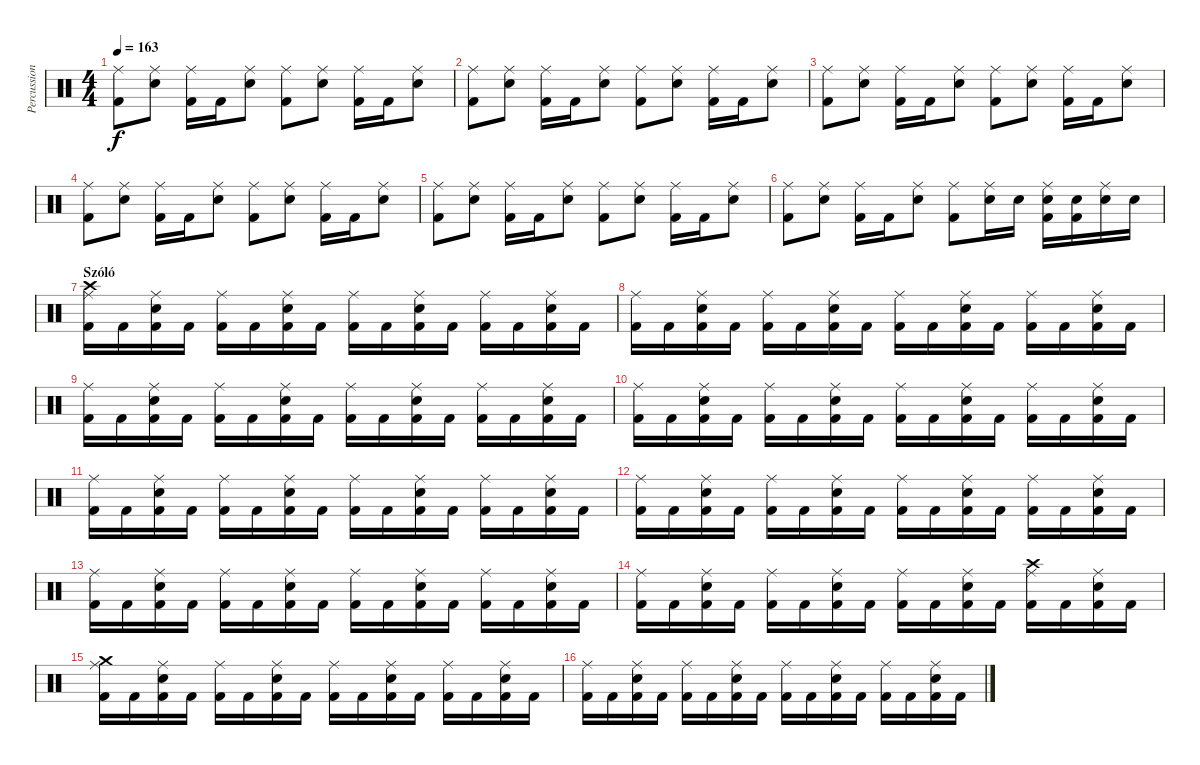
\track ("Percussion" "Percussion") {instrument percussion}
\staff {score}
\articulation defaults
\ts (4 4)
\tempo 163
\clef neutral
\ks c
("Ride (middle)" "Kick (hit) 2").8{dy f} ("Ride (middle)" "Electric Snare (hit)").8 ("Ride (middle)" "Kick (hit) 2").16 "Kick (hit) 2".16 ("Ride (middle)" "Electric Snare (hit)").8 ("Ride (middle)" "Kick (hit) 2").8 ("Ride (middle)" "Electric Snare (hit)").8 ("Ride (middle)" "Kick (hit) 2").16 "Kick (hit) 2".16 ("Ride (middle)" "Electric Snare (hit)").8 |
("Ride (middle)" "Kick (hit) 2").8 ("Ride (middle)" "Electric Snare (hit)").8 ("Ride (middle)" "Kick (hit) 2").16 "Kick (hit) 2".16 ("Ride (middle)" "Electric Snare (hit)").8 ("Ride (middle)" "Kick (hit) 2").8 ("Ride (middle)" "Electric Snare (hit)").8 ("Ride (middle)" "Kick (hit) 2").16 "Kick (hit) 2".16 ("Ride (middle)" "Electric Snare (hit)").8 |
("Ride (middle)" "Kick (hit) 2").8 ("Ride (middle)" "Electric Snare (hit)").8 ("Ride (middle)" "Kick (hit) 2").16 "Kick (hit) 2".16 ("Ride (middle)" "Electric Snare (hit)").8 ("Ride (middle)" "Kick (hit) 2").8 ("Ride (middle)" "Electric Snare (hit)").8 ("Ride (middle)" "Kick (hit) 2").16 "Kick (hit) 2".16 ("Ride (middle)" "Electric Snare (hit)").8 |
("Ride (middle)" "Kick (hit) 2").8 ("Ride (middle)" "Electric Snare (hit)").8 ("Ride (middle)" "Kick (hit) 2").16 "Kick (hit) 2".16 ("Ride (middle)" "Electric Snare (hit)").8 ("Ride (middle)" "Kick (hit) 2").8 ("Ride (middle)" "Electric Snare (hit)").8 ("Ride (middle)" "Kick (hit) 2").16 "Kick (hit) 2".16 ("Ride (middle)" "Electric Snare (hit)").8 |
("Ride (middle)" "Kick (hit) 2").8 ("Ride (middle)" "Electric Snare (hit)").8 ("Ride (middle)" "Kick (hit) 2").16 "Kick (hit) 2".16 ("Ride (middle)" "Electric Snare (hit)").8 ("Ride (middle)" "Kick (hit) 2").8 ("Ride (middle)" "Electric Snare (hit)").8 ("Ride (middle)" "Kick (hit) 2").16 "Kick (hit) 2".16 ("Ride (middle)" "Electric Snare (hit)").8 |
("Ride (middle)" "Kick (hit) 2").8 ("Ride (middle)" "Electric Snare (hit)").8 ("Ride (middle)" "Kick (hit) 2").16 "Kick (hit) 2".16 ("Ride (middle)" "Electric Snare (hit)").8 ("Ride (middle)" "Kick (hit) 2").8 ("Ride (middle)" "Electric Snare (hit)").16 "Electric Snare (hit)".16 ("Ride (middle)" "Kick (hit) 2" "Electric Snare (hit)").16 ("Kick (hit) 2" "Electric Snare (hit)").16 ("Ride (middle)" "Electric Snare (hit)").16 "Electric Snare (hit)".16 |
\section ("" "Szóló")
("Ride (middle)" "Crash high (hit)" "Kick (hit) 2").16 "Kick (hit) 2".16 ("Ride (middle)" "Kick (hit) 2" "Electric Snare (hit)").16 "Kick (hit) 2".16 ("Ride (middle)" "Kick (hit) 2").16 "Kick (hit) 2".16 ("Ride (middle)" "Kick (hit) 2" "Electric Snare (hit)").16 "Kick (hit) 2".16 ("Ride (middle)" "Kick (hit) 2").16 "Kick (hit) 2".16 ("Ride (middle)" "Kick (hit) 2" "Electric Snare (hit)").16 "Kick (hit) 2".16 ("Ride (middle)" "Kick (hit) 2").16 "Kick (hit) 2".16 ("Ride (middle)" "Kick (hit) 2" "Electric Snare (hit)").16 "Kick (hit) 2".16 |
("Ride (middle)" "Kick (hit) 2").16 "Kick (hit) 2".16 ("Ride (middle)" "Kick (hit) 2" "Electric Snare (hit)").16 "Kick (hit) 2".16 ("Ride (middle)" "Kick (hit) 2").16 "Kick (hit) 2".16 ("Ride (middle)" "Kick (hit) 2" "Electric Snare (hit)").16 "Kick (hit) 2".16 ("Ride (middle)" "Kick (hit) 2").16 "Kick (hit) 2".16 ("Ride (middle)" "Kick (hit) 2" "Electric Snare (hit)").16 "Kick (hit) 2".16 ("Ride (middle)" "Kick (hit) 2").16 "Kick (hit) 2".16 ("Ride (middle)" "Kick (hit) 2" "Electric Snare (hit)").16 "Kick (hit) 2".16 |
("Ride (middle)" "Kick (hit) 2").16 "Kick (hit) 2".16 ("Ride (middle)" "Kick (hit) 2" "Electric Snare (hit)").16 "Kick (hit) 2".16 ("Ride (middle)" "Kick (hit) 2").16 "Kick (hit) 2".16 ("Ride (middle)" "Kick (hit) 2" "Electric Snare (hit)").16 "Kick (hit) 2".16 ("Ride (middle)" "Kick (hit) 2").16 "Kick (hit) 2".16 ("Ride (middle)" "Kick (hit) 2" "Electric Snare (hit)").16 "Kick (hit) 2".16 ("Ride (middle)" "Kick (hit) 2").16 "Kick (hit) 2".16 ("Ride (middle)" "Kick (hit) 2" "Electric Snare (hit)").16 "Kick (hit) 2".16 |
("Ride (middle)" "Kick (hit) 2").16 "Kick (hit) 2".16 ("Ride (middle)" "Kick (hit) 2" "Electric Snare (hit)").16 "Kick (hit) 2".16 ("Ride (middle)" "Kick (hit) 2").16 "Kick (hit) 2".16 ("Ride (middle)" "Kick (hit) 2" "Electric Snare (hit)").16 "Kick (hit) 2".16 ("Ride (middle)" "Kick (hit) 2").16 "Kick (hit) 2".16 ("Ride (middle)" "Kick (hit) 2" "Electric Snare (hit)").16 "Kick (hit) 2".16 ("Ride (middle)" "Kick (hit) 2").16 "Kick (hit) 2".16 ("Ride (middle)" "Kick (hit) 2" "Electric Snare (hit)").16 "Kick (hit) 2".16 |
("Ride (middle)" "Kick (hit) 2").16 "Kick (hit) 2".16 ("Ride (middle)" "Kick (hit) 2" "Electric Snare (hit)").16 "Kick (hit) 2".16 ("Ride (middle)" "Kick (hit) 2").16 "Kick (hit) 2".16 ("Ride (middle)" "Kick (hit) 2" "Electric Snare (hit)").16 "Kick (hit) 2".16 ("Ride (middle)" "Kick (hit) 2").16 "Kick (hit) 2".16 ("Ride (middle)" "Kick (hit) 2" "Electric Snare (hit)").16 "Kick (hit) 2".16 ("Ride (middle)" "Kick (hit) 2").16 "Kick (hit) 2".16 ("Ride (middle)" "Kick (hit) 2" "Electric Snare (hit)").16 "Kick (hit) 2".16 |
("Ride (middle)" "Kick (hit) 2").16 "Kick (hit) 2".16 ("Ride (middle)" "Kick (hit) 2" "Electric Snare (hit)").16 "Kick (hit) 2".16 ("Ride (middle)" "Kick (hit) 2").16 "Kick (hit) 2".16 ("Ride (middle)" "Kick (hit) 2" "Electric Snare (hit)").16 "Kick (hit) 2".16 ("Ride (middle)" "Kick (hit) 2").16 "Kick (hit) 2".16 ("Ride (middle)" "Kick (hit) 2" "Electric Snare (hit)").16 "Kick (hit) 2".16 ("Ride (middle)" "Kick (hit) 2").16 "Kick (hit) 2".16 ("Ride (middle)" "Kick (hit) 2" "Electric Snare (hit)").16 "Kick (hit) 2".16 |
("Ride (middle)" "Kick (hit) 2").16 "Kick (hit) 2".16 ("Ride (middle)" "Kick (hit) 2" "Electric Snare (hit)").16 "Kick (hit) 2".16 ("Ride (middle)" "Kick (hit) 2").16 "Kick (hit) 2".16 ("Ride (middle)" "Kick (hit) 2" "Electric Snare (hit)").16 "Kick (hit) 2".16 ("Ride (middle)" "Kick (hit) 2").16 "Kick (hit) 2".16 ("Ride (middle)" "Kick (hit) 2" "Electric Snare (hit)").16 "Kick (hit) 2".16 ("Ride (middle)" "Kick (hit) 2").16 "Kick (hit) 2".16 ("Ride (middle)" "Kick (hit) 2" "Electric Snare (hit)").16 "Kick (hit) 2".16 |
("Ride (middle)" "Kick (hit) 2").16 "Kick (hit) 2".16 ("Ride (middle)" "Kick (hit) 2" "Electric Snare (hit)").16 "Kick (hit) 2".16 ("Ride (middle)" "Kick (hit) 2").16 "Kick (hit) 2".16 ("Ride (middle)" "Kick (hit) 2" "Electric Snare (hit)").16 "Kick (hit) 2".16 ("Ride (middle)" "Kick (hit) 2").16 "Kick (hit) 2".16 ("Ride (middle)" "Kick (hit) 2" "Electric Snare (hit)").16 "Kick (hit) 2".16 ("Ride (middle)" "Crash high (hit)" "Kick (hit) 2").16 "Kick (hit) 2".16 ("Ride (middle)" "Kick (hit) 2" "Electric Snare (hit)").16 "Kick (hit) 2".16 |
("Ride (middle)" "Crash medium (hit)" "Kick (hit) 2").16 "Kick (hit) 2".16 ("Ride (middle)" "Kick (hit) 2" "Electric Snare (hit)").16 "Kick (hit) 2".16 ("Ride (middle)" "Kick (hit) 2").16 "Kick (hit) 2".16 ("Ride (middle)" "Kick (hit) 2" "Electric Snare (hit)").16 "Kick (hit) 2".16 ("Ride (middle)" "Kick (hit) 2").16 "Kick (hit) 2".16 ("Ride (middle)" "Kick (hit) 2" "Electric Snare (hit)").16 "Kick (hit) 2".16 ("Ride (middle)" "Kick (hit) 2").16 "Kick (hit) 2".16 ("Ride (middle)" "Kick (hit) 2" "Electric Snare (hit)").16 "Kick (hit) 2".16 |
("Ride (middle)" "Kick (hit) 2").16 "Kick (hit) 2".16 ("Ride (middle)" "Kick (hit) 2" "Electric Snare (hit)").16 "Kick (hit) 2".16 ("Ride (middle)" "Kick (hit) 2").16 "Kick (hit) 2".16 ("Ride (middle)" "Kick (hit) 2" "Electric Snare (hit)").16 "Kick (hit) 2".16 ("Ride (middle)" "Kick (hit) 2").16 "Kick (hit) 2".16 ("Ride (middle)" "Kick (hit) 2" "Electric Snare (hit)").16 "Kick (hit) 2".16 ("Ride (middle)" "Kick (hit) 2").16 "Kick (hit) 2".16 ("Ride (middle)" "Kick (hit) 2" "Electric Snare (hit)").16 "Kick (hit) 2".16
